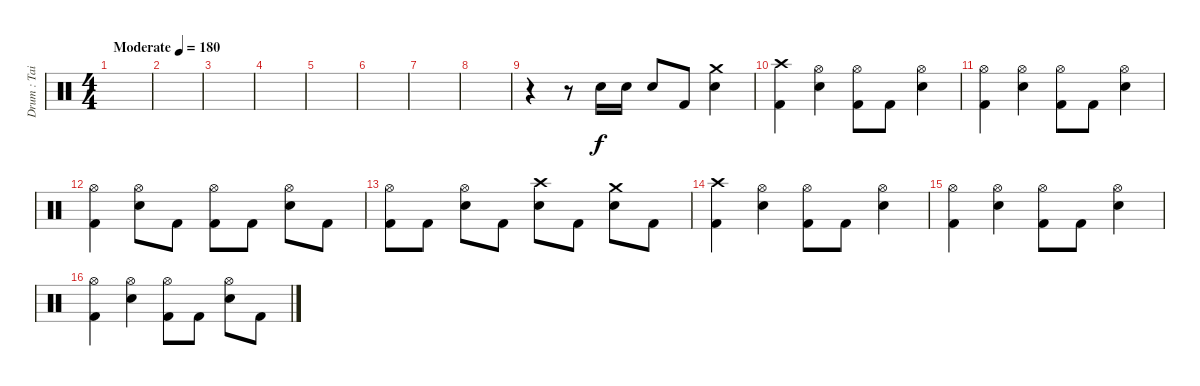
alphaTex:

\track ("Drum : Tainaka Ritsu" "Drum : Tai") {instrument percussion}
\staff {score}
\articulation defaults
\ts (4 4)
\tempo (180 "Moderate")
\clef neutral
\ks c
|
|
|
|
|
|
|
|
r.4 r.8 "Snare (hit) 2".16 "Snare (hit) 2".16 "Snare (hit) 2".8 "Kick (hit) 2".8 ("Crash medium (hit)" "Snare (hit) 2").4 |
("Crash high (hit)" "Kick (hit) 2").4 ("Hi-Hat (open)" "Snare (hit) 2").4 ("Hi-Hat (open)" "Kick (hit) 2").8 "Kick (hit) 2".8 ("Hi-Hat (open)" "Snare (hit) 2").4 |
("Hi-Hat (open)" "Kick (hit) 2").4 ("Hi-Hat (open)" "Snare (hit) 2").4 ("Hi-Hat (open)" "Kick (hit) 2").8 "Kick (hit) 2".8 ("Hi-Hat (open)" "Snare (hit) 2").4 |
("Hi-Hat (open)" "Kick (hit) 2").4 ("Hi-Hat (open)" "Snare (hit) 2").8 "Kick (hit) 2".8 ("Hi-Hat (open)" "Kick (hit) 2").8 "Kick (hit) 2".8 ("Hi-Hat (open)" "Snare (hit) 2").8 "Kick (hit) 2".8 |
("Hi-Hat (open)" "Kick (hit) 2").8 "Kick (hit) 2".8 ("Hi-Hat (open)" "Snare (hit) 2").8 "Kick (hit) 2".8 ("Crash high (hit)" "Snare (hit) 2").8 "Kick (hit) 2".8 ("Crash medium (hit)" "Snare (hit) 2").8 "Kick (hit) 2".8 |
("Crash high (hit)" "Kick (hit) 2").4 ("Hi-Hat (open)" "Snare (hit) 2").4 ("Hi-Hat (open)" "Kick (hit) 2").8 "Kick (hit) 2".8 ("Hi-Hat (open)" "Snare (hit) 2").4 |
("Hi-Hat (open)" "Kick (hit) 2").4 ("Hi-Hat (open)" "Snare (hit) 2").4 ("Hi-Hat (open)" "Kick (hit) 2").8 "Kick (hit) 2".8 ("Hi-Hat (open)" "Snare (hit) 2").4 |
("Hi-Hat (open)" "Kick (hit) 2").4 ("Hi-Hat (open)" "Snare (hit) 2").4 ("Hi-Hat (open)" "Kick (hit) 2").8 "Kick (hit) 2".8 ("Hi-Hat (open)" "Snare (hit) 2").8 "Kick (hit) 2".8
